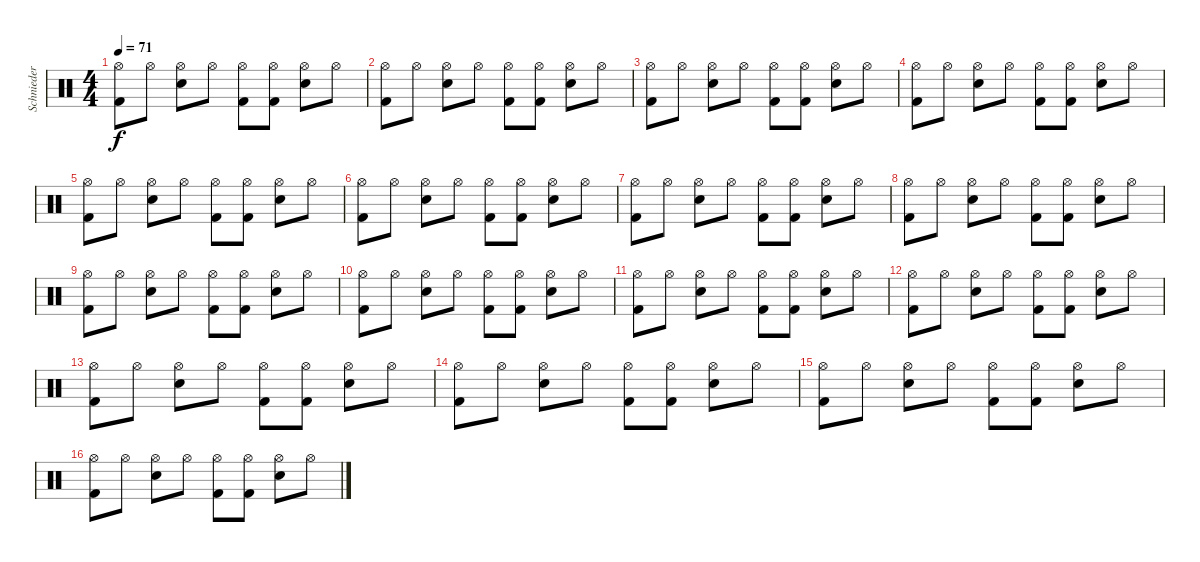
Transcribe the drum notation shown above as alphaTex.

\track ("Schnieder" "Schnieder") {instrument percussion}
\staff {score}
\articulation defaults
\ts (4 4)
\tempo 71
\clef neutral
\ks c
("Hi-Hat (open)" "Kick (hit) 2").8{dy f} "Hi-Hat (open)".8 ("Hi-Hat (open)" "Electric Snare (hit)").8 "Hi-Hat (open)".8 ("Hi-Hat (open)" "Kick (hit) 2").8 ("Hi-Hat (open)" "Kick (hit) 2").8 ("Hi-Hat (open)" "Electric Snare (hit)").8 "Hi-Hat (open)".8 |
("Hi-Hat (open)" "Kick (hit) 2").8 "Hi-Hat (open)".8 ("Hi-Hat (open)" "Electric Snare (hit)").8 "Hi-Hat (open)".8 ("Hi-Hat (open)" "Kick (hit) 2").8 ("Hi-Hat (open)" "Kick (hit) 2").8 ("Hi-Hat (open)" "Electric Snare (hit)").8 "Hi-Hat (open)".8 |
("Hi-Hat (open)" "Kick (hit) 2").8 "Hi-Hat (open)".8 ("Hi-Hat (open)" "Electric Snare (hit)").8 "Hi-Hat (open)".8 ("Hi-Hat (open)" "Kick (hit) 2").8 ("Hi-Hat (open)" "Kick (hit) 2").8 ("Hi-Hat (open)" "Electric Snare (hit)").8 "Hi-Hat (open)".8 |
("Hi-Hat (open)" "Kick (hit) 2").8 "Hi-Hat (open)".8 ("Hi-Hat (open)" "Electric Snare (hit)").8 "Hi-Hat (open)".8 ("Hi-Hat (open)" "Kick (hit) 2").8 ("Hi-Hat (open)" "Kick (hit) 2").8 ("Hi-Hat (open)" "Electric Snare (hit)").8 "Hi-Hat (open)".8 |
("Hi-Hat (open)" "Kick (hit) 2").8 "Hi-Hat (open)".8 ("Hi-Hat (open)" "Electric Snare (hit)").8 "Hi-Hat (open)".8 ("Hi-Hat (open)" "Kick (hit) 2").8 ("Hi-Hat (open)" "Kick (hit) 2").8 ("Hi-Hat (open)" "Electric Snare (hit)").8 "Hi-Hat (open)".8 |
("Hi-Hat (open)" "Kick (hit) 2").8 "Hi-Hat (open)".8 ("Hi-Hat (open)" "Electric Snare (hit)").8 "Hi-Hat (open)".8 ("Hi-Hat (open)" "Kick (hit) 2").8 ("Hi-Hat (open)" "Kick (hit) 2").8 ("Hi-Hat (open)" "Electric Snare (hit)").8 "Hi-Hat (open)".8 |
("Hi-Hat (open)" "Kick (hit) 2").8 "Hi-Hat (open)".8 ("Hi-Hat (open)" "Electric Snare (hit)").8 "Hi-Hat (open)".8 ("Hi-Hat (open)" "Kick (hit) 2").8 ("Hi-Hat (open)" "Kick (hit) 2").8 ("Hi-Hat (open)" "Electric Snare (hit)").8 "Hi-Hat (open)".8 |
("Hi-Hat (open)" "Kick (hit) 2").8 "Hi-Hat (open)".8 ("Hi-Hat (open)" "Electric Snare (hit)").8 "Hi-Hat (open)".8 ("Hi-Hat (open)" "Kick (hit) 2").8 ("Hi-Hat (open)" "Kick (hit) 2").8 ("Hi-Hat (open)" "Electric Snare (hit)").8 "Hi-Hat (open)".8 |
("Hi-Hat (open)" "Kick (hit) 2").8 "Hi-Hat (open)".8 ("Hi-Hat (open)" "Electric Snare (hit)").8 "Hi-Hat (open)".8 ("Hi-Hat (open)" "Kick (hit) 2").8 ("Hi-Hat (open)" "Kick (hit) 2").8 ("Hi-Hat (open)" "Electric Snare (hit)").8 "Hi-Hat (open)".8 |
("Hi-Hat (open)" "Kick (hit) 2").8 "Hi-Hat (open)".8 ("Hi-Hat (open)" "Electric Snare (hit)").8 "Hi-Hat (open)".8 ("Hi-Hat (open)" "Kick (hit) 2").8 ("Hi-Hat (open)" "Kick (hit) 2").8 ("Hi-Hat (open)" "Electric Snare (hit)").8 "Hi-Hat (open)".8 |
("Hi-Hat (open)" "Kick (hit) 2").8 "Hi-Hat (open)".8 ("Hi-Hat (open)" "Electric Snare (hit)").8 "Hi-Hat (open)".8 ("Hi-Hat (open)" "Kick (hit) 2").8 ("Hi-Hat (open)" "Kick (hit) 2").8 ("Hi-Hat (open)" "Electric Snare (hit)").8 "Hi-Hat (open)".8 |
("Hi-Hat (open)" "Kick (hit) 2").8 "Hi-Hat (open)".8 ("Hi-Hat (open)" "Electric Snare (hit)").8 "Hi-Hat (open)".8 ("Hi-Hat (open)" "Kick (hit) 2").8 ("Hi-Hat (open)" "Kick (hit) 2").8 ("Hi-Hat (open)" "Electric Snare (hit)").8 "Hi-Hat (open)".8 |
("Hi-Hat (open)" "Kick (hit) 2").8 "Hi-Hat (open)".8 ("Hi-Hat (open)" "Electric Snare (hit)").8 "Hi-Hat (open)".8 ("Hi-Hat (open)" "Kick (hit) 2").8 ("Hi-Hat (open)" "Kick (hit) 2").8 ("Hi-Hat (open)" "Electric Snare (hit)").8 "Hi-Hat (open)".8 |
("Hi-Hat (open)" "Kick (hit) 2").8 "Hi-Hat (open)".8 ("Hi-Hat (open)" "Electric Snare (hit)").8 "Hi-Hat (open)".8 ("Hi-Hat (open)" "Kick (hit) 2").8 ("Hi-Hat (open)" "Kick (hit) 2").8 ("Hi-Hat (open)" "Electric Snare (hit)").8 "Hi-Hat (open)".8 |
("Hi-Hat (open)" "Kick (hit) 2").8 "Hi-Hat (open)".8 ("Hi-Hat (open)" "Electric Snare (hit)").8 "Hi-Hat (open)".8 ("Hi-Hat (open)" "Kick (hit) 2").8 ("Hi-Hat (open)" "Kick (hit) 2").8 ("Hi-Hat (open)" "Electric Snare (hit)").8 "Hi-Hat (open)".8 |
("Hi-Hat (open)" "Kick (hit) 2").8 "Hi-Hat (open)".8 ("Hi-Hat (open)" "Electric Snare (hit)").8 "Hi-Hat (open)".8 ("Hi-Hat (open)" "Kick (hit) 2").8 ("Hi-Hat (open)" "Kick (hit) 2").8 ("Hi-Hat (open)" "Electric Snare (hit)").8 "Hi-Hat (open)".8
